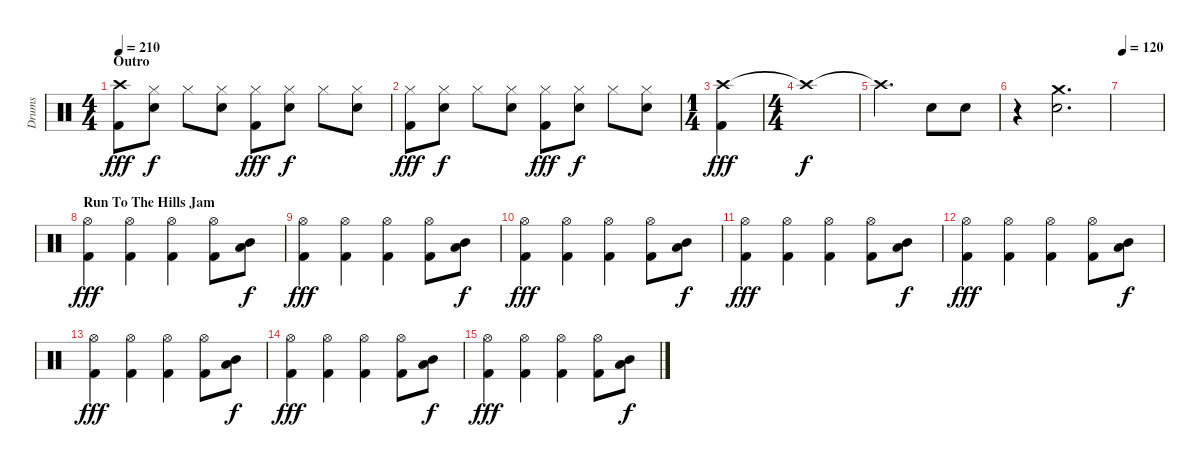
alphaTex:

\track ("Drums" "Drums") {instrument percussion}
\staff {score}
\articulation defaults
\ts (4 4)
\section ("" "Outro")
\tempo 210
\clef neutral
\ks c
("Crash high (hit)" "Kick (hit) 2").8{dy fff} ("Hi-Hat (closed)" "Snare (hit) 2").8{dy f} "Hi-Hat (closed)".8 ("Hi-Hat (closed)" "Snare (hit) 2").8 ("Hi-Hat (closed)" "Kick (hit) 2").8{dy fff} ("Hi-Hat (closed)" "Snare (hit) 2").8{dy f} "Hi-Hat (closed)".8 ("Hi-Hat (closed)" "Snare (hit) 2").8 |
("Hi-Hat (closed)" "Kick (hit) 2").8{dy fff} ("Hi-Hat (closed)" "Snare (hit) 2").8{dy f} "Hi-Hat (closed)".8 ("Hi-Hat (closed)" "Snare (hit) 2").8 ("Hi-Hat (closed)" "Kick (hit) 2").8{dy fff} ("Hi-Hat (closed)" "Snare (hit) 2").8{dy f} "Hi-Hat (closed)".8 ("Hi-Hat (closed)" "Snare (hit) 2").8 |
\ts (1 4)
("Crash high (hit)" "Kick (hit) 2").4{dy fff} |
\ts (4 4)
"Crash high (hit)"{t}.1{dy f} |
"Crash high (hit)"{t}.2{d} "Snare (hit) 2".8 "Snare (hit) 2".8 |
r.4 ("Crash medium (hit)" "Snare (hit) 2").2{d} |
\tempo 120
|
\section ("" "Run To The Hills Jam")
("Hi-Hat (open)" "Kick (hit) 2").4{dy fff} ("Hi-Hat (open)" "Kick (hit) 2").4 ("Hi-Hat (open)" "Kick (hit) 2").4 ("Hi-Hat (open)" "Kick (hit) 2").8 ("Low Tom (hit)" "Mid Tom (hit)").8{dy f} |
("Hi-Hat (open)" "Kick (hit) 2").4{dy fff} ("Hi-Hat (open)" "Kick (hit) 2").4 ("Hi-Hat (open)" "Kick (hit) 2").4 ("Hi-Hat (open)" "Kick (hit) 2").8 ("Low Tom (hit)" "Mid Tom (hit)").8{dy f} |
("Hi-Hat (open)" "Kick (hit) 2").4{dy fff} ("Hi-Hat (open)" "Kick (hit) 2").4 ("Hi-Hat (open)" "Kick (hit) 2").4 ("Hi-Hat (open)" "Kick (hit) 2").8 ("Low Tom (hit)" "Mid Tom (hit)").8{dy f} |
("Hi-Hat (open)" "Kick (hit) 2").4{dy fff} ("Hi-Hat (open)" "Kick (hit) 2").4 ("Hi-Hat (open)" "Kick (hit) 2").4 ("Hi-Hat (open)" "Kick (hit) 2").8 ("Low Tom (hit)" "Mid Tom (hit)").8{dy f} |
("Hi-Hat (open)" "Kick (hit) 2").4{dy fff} ("Hi-Hat (open)" "Kick (hit) 2").4 ("Hi-Hat (open)" "Kick (hit) 2").4 ("Hi-Hat (open)" "Kick (hit) 2").8 ("Low Tom (hit)" "Mid Tom (hit)").8{dy f} |
("Hi-Hat (open)" "Kick (hit) 2").4{dy fff} ("Hi-Hat (open)" "Kick (hit) 2").4 ("Hi-Hat (open)" "Kick (hit) 2").4 ("Hi-Hat (open)" "Kick (hit) 2").8 ("Low Tom (hit)" "Mid Tom (hit)").8{dy f} |
("Hi-Hat (open)" "Kick (hit) 2").4{dy fff volume 0} ("Hi-Hat (open)" "Kick (hit) 2").4 ("Hi-Hat (open)" "Kick (hit) 2").4 ("Hi-Hat (open)" "Kick (hit) 2").8 ("Low Tom (hit)" "Mid Tom (hit)").8{dy f} |
("Hi-Hat (open)" "Kick (hit) 2").4{dy fff} ("Hi-Hat (open)" "Kick (hit) 2").4 ("Hi-Hat (open)" "Kick (hit) 2").4 ("Hi-Hat (open)" "Kick (hit) 2").8 ("Low Tom (hit)" "Mid Tom (hit)").8{dy f}
